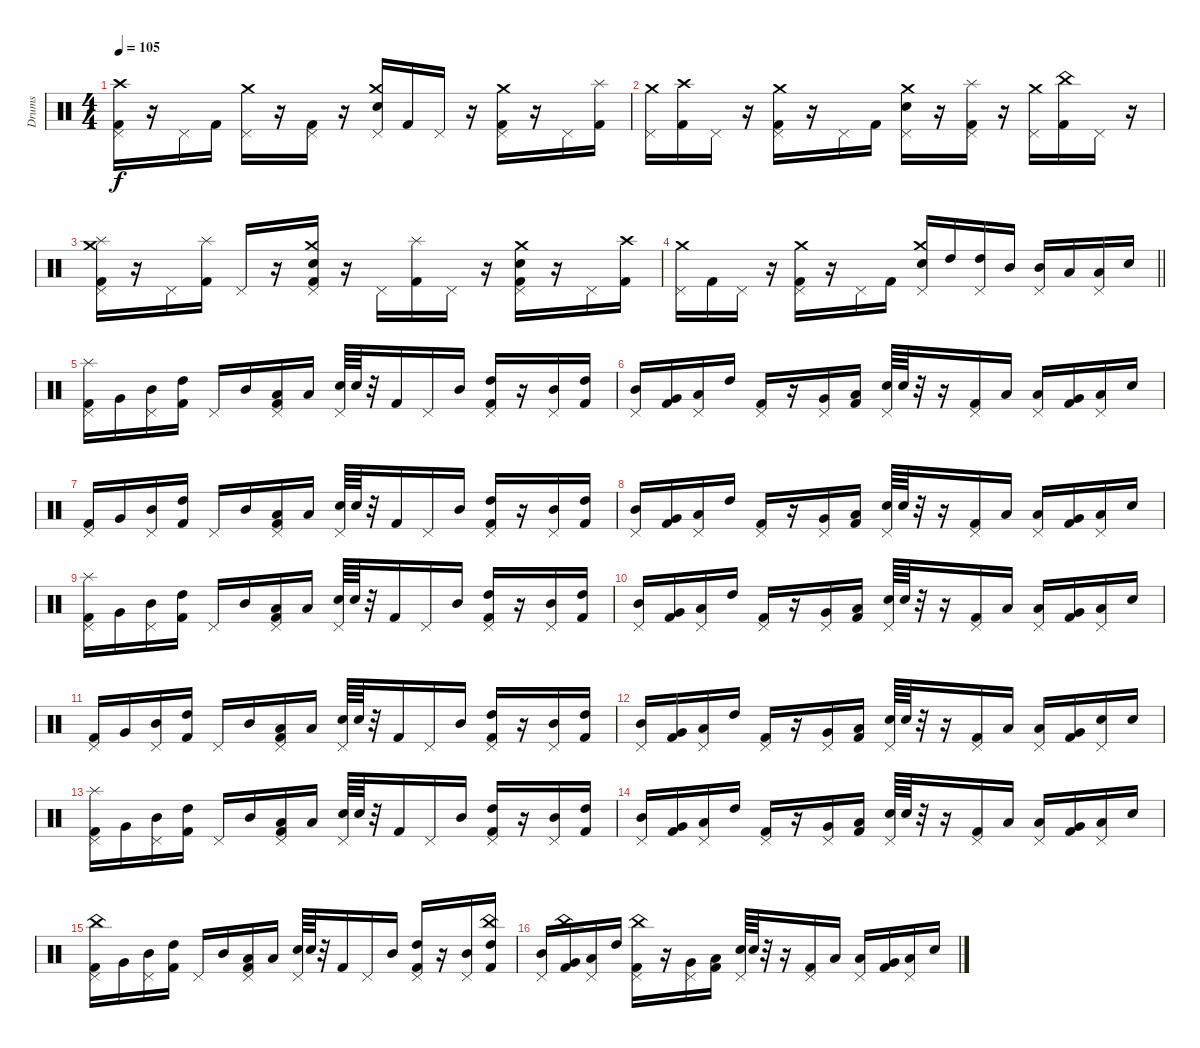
\track ("Drums" "Drums") {instrument percussion}
\staff {score}
\articulation defaults
\ts (4 4)
\tempo 105
\clef neutral
\ks c
("Crash high (hit)" "Pedal Hi-Hat (hit)" "Kick (hit) 2").16{dy f} r.16 "Pedal Hi-Hat (hit)".16 "Kick (hit) 2".16 ("Crash medium (hit)" "Pedal Hi-Hat (hit)").16 r.16 ("Pedal Hi-Hat (hit)" "Kick (hit) 2").16 r.16 ("Crash medium (hit)" "Pedal Hi-Hat (hit)" "Electric Snare (hit)").16 "Kick (hit) 2".16 "Pedal Hi-Hat (hit)".16 r.16 ("Crash medium (hit)" "Pedal Hi-Hat (hit)" "Kick (hit) 2").16 r.16 "Pedal Hi-Hat (hit)".16 ("Splash (hit)" "Kick (hit) 2").16 |
("Crash medium (hit)" "Pedal Hi-Hat (hit)").16 ("Crash high (hit)" "Kick (hit) 2").16 "Pedal Hi-Hat (hit)".16 r.16 ("Crash medium (hit)" "Pedal Hi-Hat (hit)" "Kick (hit) 2").16 r.16 "Pedal Hi-Hat (hit)".16 "Kick (hit) 2".16 ("Crash medium (hit)" "Pedal Hi-Hat (hit)" "Electric Snare (hit)").16 r.16 ("Splash (hit)" "Pedal Hi-Hat (hit)" "Kick (hit) 2").16 r.16 ("Crash medium (hit)" "Pedal Hi-Hat (hit)").16 ("China (hit)" "Kick (hit) 2").16 "Pedal Hi-Hat (hit)".16 r.16 |
("Splash (hit)" "Crash medium (hit)" "Pedal Hi-Hat (hit)" "Kick (hit) 2").16 r.16 "Pedal Hi-Hat (hit)".16 ("Splash (hit)" "Kick (hit) 2").16 "Pedal Hi-Hat (hit)".16 r.16 ("Crash medium (hit)" "Pedal Hi-Hat (hit)" "Electric Snare (hit)" "Kick (hit) 2").16 r.16 "Pedal Hi-Hat (hit)".16 ("Splash (hit)" "Kick (hit) 2").16 "Pedal Hi-Hat (hit)".16 r.16 ("Crash medium (hit)" "Pedal Hi-Hat (hit)" "Electric Snare (hit)" "Kick (hit) 2").16 r.16 "Pedal Hi-Hat (hit)".16 ("Crash high (hit)" "Kick (hit) 2").16 |
\barLineRight lightlight
("Crash medium (hit)" "Pedal Hi-Hat (hit)").16 "Kick (hit) 2".16 "Pedal Hi-Hat (hit)".16 r.16 ("Crash medium (hit)" "Pedal Hi-Hat (hit)" "Kick (hit) 2").16 r.16 "Pedal Hi-Hat (hit)".16 "Kick (hit) 2".16 ("Crash medium (hit)" "Pedal Hi-Hat (hit)" "Electric Snare (hit)").16 "High Tom (hit)".16 ("High Tom (hit)" "Pedal Hi-Hat (hit)").16 "Mid Tom (hit)".16 ("Mid Tom (hit)" "Pedal Hi-Hat (hit)").16 "Low Tom (hit)".16 ("Pedal Hi-Hat (hit)" "Low Floor Tom (hit)").16 "Electric Snare (hit)".16 |
\section ("" "")
("Splash (hit)" "Pedal Hi-Hat (hit)" "Kick (hit) 2").16 "Very Low Tom (hit)".16 ("Mid Tom (hit)" "Pedal Hi-Hat (hit)").16 ("High Tom (hit)" "Kick (hit) 2").16 "Pedal Hi-Hat (hit)".16 "Mid Tom (hit)".16 ("Pedal Hi-Hat (hit)" "Low Tom (hit)" "Kick (hit) 2").16 "Low Floor Tom (hit)".16 ("Pedal Hi-Hat (hit)" "Electric Snare (hit)").64 "Electric Snare (hit)".64 r.32 "Kick (hit) 2".16 "Pedal Hi-Hat (hit)".16 "Mid Tom (hit)".16 ("High Tom (hit)" "Pedal Hi-Hat (hit)" "Kick (hit) 2").16 r.16 ("Mid Tom (hit)" "Pedal Hi-Hat (hit)").16 ("High Tom (hit)" "Kick (hit) 2").16 |
("Mid Tom (hit)" "Pedal Hi-Hat (hit)").16 ("Very Low Tom (hit)" "Kick (hit) 2").16 ("Pedal Hi-Hat (hit)" "Low Tom (hit)").16 "High Tom (hit)".16 ("Pedal Hi-Hat (hit)" "Kick (hit) 2").16 r.16 ("Pedal Hi-Hat (hit)" "Very Low Tom (hit)").16 ("Low Tom (hit)" "Kick (hit) 2").16 ("Pedal Hi-Hat (hit)" "Electric Snare (hit)").64 "Electric Snare (hit)".64 r.32 r.16 ("Pedal Hi-Hat (hit)" "Kick (hit) 2").16 "Low Tom (hit)".16 ("Pedal Hi-Hat (hit)" "Low Floor Tom (hit)").16 ("Very Low Tom (hit)" "Kick (hit) 2").16 ("Pedal Hi-Hat (hit)" "Low Tom (hit)").16 "Electric Snare (hit)".16 |
("Pedal Hi-Hat (hit)" "Kick (hit) 2").16 "Very Low Tom (hit)".16 ("Mid Tom (hit)" "Pedal Hi-Hat (hit)").16 ("High Tom (hit)" "Kick (hit) 2").16 "Pedal Hi-Hat (hit)".16 "Mid Tom (hit)".16 ("Pedal Hi-Hat (hit)" "Low Tom (hit)" "Kick (hit) 2").16 "Low Floor Tom (hit)".16 ("Pedal Hi-Hat (hit)" "Electric Snare (hit)").64 "Electric Snare (hit)".64 r.32 "Kick (hit) 2".16 "Pedal Hi-Hat (hit)".16 "Mid Tom (hit)".16 ("High Tom (hit)" "Pedal Hi-Hat (hit)" "Kick (hit) 2").16 r.16 ("Mid Tom (hit)" "Pedal Hi-Hat (hit)").16 ("High Tom (hit)" "Kick (hit) 2").16 |
("Mid Tom (hit)" "Pedal Hi-Hat (hit)").16 ("Very Low Tom (hit)" "Kick (hit) 2").16 ("Pedal Hi-Hat (hit)" "Low Tom (hit)").16 "High Tom (hit)".16 ("Pedal Hi-Hat (hit)" "Kick (hit) 2").16 r.16 ("Pedal Hi-Hat (hit)" "Very Low Tom (hit)").16 ("Low Tom (hit)" "Kick (hit) 2").16 ("Pedal Hi-Hat (hit)" "Electric Snare (hit)").64 "Electric Snare (hit)".64 r.32 r.16 ("Pedal Hi-Hat (hit)" "Kick (hit) 2").16 "Low Tom (hit)".16 ("Pedal Hi-Hat (hit)" "Low Floor Tom (hit)").16 ("Very Low Tom (hit)" "Kick (hit) 2").16 ("Pedal Hi-Hat (hit)" "Low Tom (hit)").16 "Electric Snare (hit)".16 |
("Splash (hit)" "Pedal Hi-Hat (hit)" "Kick (hit) 2").16 "Very Low Tom (hit)".16 ("Mid Tom (hit)" "Pedal Hi-Hat (hit)").16 ("High Tom (hit)" "Kick (hit) 2").16 "Pedal Hi-Hat (hit)".16 "Mid Tom (hit)".16 ("Pedal Hi-Hat (hit)" "Low Tom (hit)" "Kick (hit) 2").16 "Low Floor Tom (hit)".16 ("Pedal Hi-Hat (hit)" "Electric Snare (hit)").64 "Electric Snare (hit)".64 r.32 "Kick (hit) 2".16 "Pedal Hi-Hat (hit)".16 "Mid Tom (hit)".16 ("High Tom (hit)" "Pedal Hi-Hat (hit)" "Kick (hit) 2").16 r.16 ("Mid Tom (hit)" "Pedal Hi-Hat (hit)").16 ("High Tom (hit)" "Kick (hit) 2").16 |
("Mid Tom (hit)" "Pedal Hi-Hat (hit)").16 ("Very Low Tom (hit)" "Kick (hit) 2").16 ("Pedal Hi-Hat (hit)" "Low Tom (hit)").16 "High Tom (hit)".16 ("Pedal Hi-Hat (hit)" "Kick (hit) 2").16 r.16 ("Pedal Hi-Hat (hit)" "Very Low Tom (hit)").16 ("Low Tom (hit)" "Kick (hit) 2").16 ("Pedal Hi-Hat (hit)" "Electric Snare (hit)").64 "Electric Snare (hit)".64 r.32 r.16 ("Pedal Hi-Hat (hit)" "Kick (hit) 2").16 "Low Tom (hit)".16 ("Pedal Hi-Hat (hit)" "Low Floor Tom (hit)").16 ("Very Low Tom (hit)" "Kick (hit) 2").16 ("Pedal Hi-Hat (hit)" "Low Tom (hit)").16 "Electric Snare (hit)".16 |
("Pedal Hi-Hat (hit)" "Kick (hit) 2").16 "Very Low Tom (hit)".16 ("Mid Tom (hit)" "Pedal Hi-Hat (hit)").16 ("High Tom (hit)" "Kick (hit) 2").16 "Pedal Hi-Hat (hit)".16 "Mid Tom (hit)".16 ("Pedal Hi-Hat (hit)" "Low Tom (hit)" "Kick (hit) 2").16 "Low Floor Tom (hit)".16 ("Pedal Hi-Hat (hit)" "Electric Snare (hit)").64 "Electric Snare (hit)".64 r.32 "Kick (hit) 2".16 "Pedal Hi-Hat (hit)".16 "Mid Tom (hit)".16 ("High Tom (hit)" "Pedal Hi-Hat (hit)" "Kick (hit) 2").16 r.16 ("Mid Tom (hit)" "Pedal Hi-Hat (hit)").16 ("High Tom (hit)" "Kick (hit) 2").16 |
("Mid Tom (hit)" "Pedal Hi-Hat (hit)").16 ("Very Low Tom (hit)" "Kick (hit) 2").16 ("Pedal Hi-Hat (hit)" "Low Tom (hit)").16 "High Tom (hit)".16 ("Pedal Hi-Hat (hit)" "Kick (hit) 2").16 r.16 ("Pedal Hi-Hat (hit)" "Very Low Tom (hit)").16 ("Low Tom (hit)" "Kick (hit) 2").16 ("Pedal Hi-Hat (hit)" "Electric Snare (hit)").64 "Electric Snare (hit)".64 r.32 r.16 ("Pedal Hi-Hat (hit)" "Kick (hit) 2").16 "Low Tom (hit)".16 ("Pedal Hi-Hat (hit)" "Low Floor Tom (hit)").16 ("Very Low Tom (hit)" "Kick (hit) 2").16 ("Pedal Hi-Hat (hit)" "Electric Snare (hit)").16 "Electric Snare (hit)".16 |
("Splash (hit)" "Pedal Hi-Hat (hit)" "Kick (hit) 2").16 "Very Low Tom (hit)".16 ("Mid Tom (hit)" "Pedal Hi-Hat (hit)").16 ("High Tom (hit)" "Kick (hit) 2").16 "Pedal Hi-Hat (hit)".16 "Mid Tom (hit)".16 ("Pedal Hi-Hat (hit)" "Low Tom (hit)" "Kick (hit) 2").16 "Low Floor Tom (hit)".16 ("Pedal Hi-Hat (hit)" "Electric Snare (hit)").64 "Electric Snare (hit)".64 r.32 "Kick (hit) 2".16 "Pedal Hi-Hat (hit)".16 "Mid Tom (hit)".16 ("High Tom (hit)" "Pedal Hi-Hat (hit)" "Kick (hit) 2").16 r.16 ("Mid Tom (hit)" "Pedal Hi-Hat (hit)").16 ("High Tom (hit)" "Kick (hit) 2").16 |
("Mid Tom (hit)" "Pedal Hi-Hat (hit)").16 ("Very Low Tom (hit)" "Kick (hit) 2").16 ("Pedal Hi-Hat (hit)" "Low Tom (hit)").16 "High Tom (hit)".16 ("Pedal Hi-Hat (hit)" "Kick (hit) 2").16 r.16 ("Pedal Hi-Hat (hit)" "Very Low Tom (hit)").16 ("Low Tom (hit)" "Kick (hit) 2").16 ("Pedal Hi-Hat (hit)" "Electric Snare (hit)").64 "Electric Snare (hit)".64 r.32 r.16 ("Pedal Hi-Hat (hit)" "Kick (hit) 2").16 "Low Tom (hit)".16 ("Pedal Hi-Hat (hit)" "Low Floor Tom (hit)").16 ("Very Low Tom (hit)" "Kick (hit) 2").16 ("Pedal Hi-Hat (hit)" "Low Tom (hit)").16 "Electric Snare (hit)".16 |
("China (hit)" "Pedal Hi-Hat (hit)" "Kick (hit) 2").16 "Very Low Tom (hit)".16 ("Mid Tom (hit)" "Pedal Hi-Hat (hit)").16 ("High Tom (hit)" "Kick (hit) 2").16 "Pedal Hi-Hat (hit)".16 "Mid Tom (hit)".16 ("Pedal Hi-Hat (hit)" "Low Tom (hit)" "Kick (hit) 2").16 "Low Floor Tom (hit)".16 ("Pedal Hi-Hat (hit)" "Electric Snare (hit)").64 "Electric Snare (hit)".64 r.32 "Kick (hit) 2".16 "Pedal Hi-Hat (hit)".16 "Mid Tom (hit)".16 ("High Tom (hit)" "Pedal Hi-Hat (hit)" "Kick (hit) 2").16 r.16 ("Mid Tom (hit)" "Pedal Hi-Hat (hit)").16 ("China (hit)" "High Tom (hit)" "Kick (hit) 2").16 |
("Mid Tom (hit)" "Pedal Hi-Hat (hit)").16 ("China (hit)" "Very Low Tom (hit)" "Kick (hit) 2").16 ("Pedal Hi-Hat (hit)" "Low Tom (hit)").16 "High Tom (hit)".16 ("China (hit)" "Pedal Hi-Hat (hit)" "Kick (hit) 2").16 r.16 ("Pedal Hi-Hat (hit)" "Very Low Tom (hit)").16 ("Low Tom (hit)" "Kick (hit) 2").16 ("Pedal Hi-Hat (hit)" "Electric Snare (hit)").64 "Electric Snare (hit)".64 r.32 r.16 ("Pedal Hi-Hat (hit)" "Kick (hit) 2").16 "Low Tom (hit)".16 ("Pedal Hi-Hat (hit)" "Low Floor Tom (hit)").16 ("Very Low Tom (hit)" "Kick (hit) 2").16 ("Pedal Hi-Hat (hit)" "Low Tom (hit)").16 "Electric Snare (hit)".16
